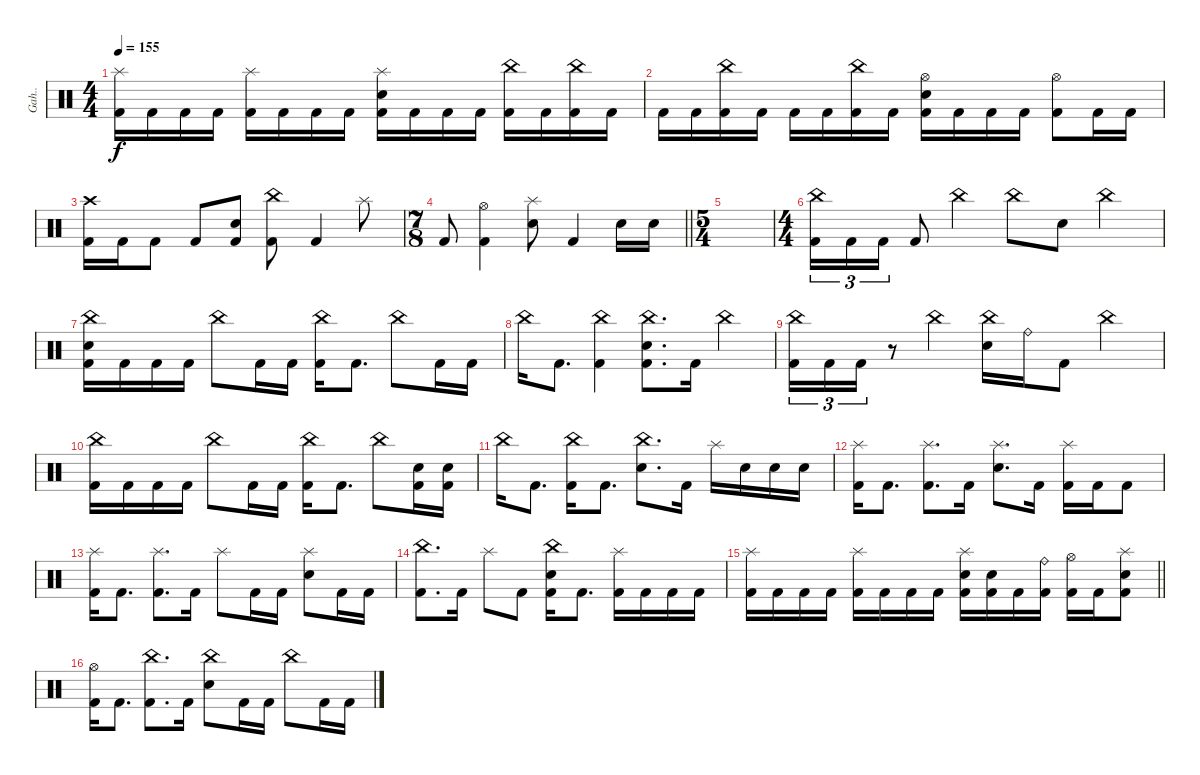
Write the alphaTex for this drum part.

\track ("Gah.." "Gah..") {instrument percussion}
\staff {score}
\articulation defaults
\ts (4 4)
\tempo 155
\clef neutral
\ks c
("Splash (hit)" "Kick (hit) 2").16{dy f} "Kick (hit) 2".16 "Kick (hit) 2".16 "Kick (hit) 2".16 ("Splash (hit)" "Kick (hit) 2").16 "Kick (hit) 2".16 "Kick (hit) 2".16 "Kick (hit) 2".16 ("Splash (hit)" "Electric Snare (hit)" "Kick (hit) 2").16 "Kick (hit) 2".16 "Kick (hit) 2".16 "Kick (hit) 2".16 ("China (hit)" "Kick (hit) 2").16 "Kick (hit) 2".16 ("China (hit)" "Kick (hit) 2").16 "Kick (hit) 2".16 |
"Kick (hit) 2".16 "Kick (hit) 2".16 ("China (hit)" "Kick (hit) 2").16 "Kick (hit) 2".16 "Kick (hit) 2".16 "Kick (hit) 2".16 ("China (hit)" "Kick (hit) 2").16 "Kick (hit) 2".16 ("Hi-Hat (open)" "Electric Snare (hit)" "Kick (hit) 2").16 "Kick (hit) 2".16 "Kick (hit) 2".16 "Kick (hit) 2".16 ("Hi-Hat (open)" "Kick (hit) 2").8 "Kick (hit) 2".16 "Kick (hit) 2".16 |
("Crash high (hit)" "Kick (hit) 2").16 "Kick (hit) 2".16 "Kick (hit) 2".8 "Kick (hit) 2".8 ("Electric Snare (hit)" "Kick (hit) 2").8 ("China (hit)" "Kick (hit) 2").8 "Kick (hit) 2".4 "Splash (hit)".8 |
\ts (7 8)
\barLineRight lightlight "Kick (hit) 2".8
("Hi-Hat (open)" "Kick (hit) 2").4 ("Splash (hit)" "Electric Snare (hit)").8 "Kick (hit) 2".4 "Electric Snare (hit)".16 "Electric Snare (hit)".16 |
\ts (5 4)
\section ("" "")
|
\ts (4 4)
("China (hit)" "Kick (hit) 2").16{tu (3 2)} "Kick (hit) 2".16{tu (3 2)} "Kick (hit) 2".16{tu (3 2)} "Kick (hit) 2".8 "China (hit)".4 "China (hit)".8 "Electric Snare (hit)".8 "China (hit)".4 |
("China (hit)" "Electric Snare (hit)" "Kick (hit) 2").16 "Kick (hit) 2".16 "Kick (hit) 2".16 "Kick (hit) 2".16 "China (hit)".8 "Kick (hit) 2".16 "Kick (hit) 2".16 ("China (hit)" "Kick (hit) 2").16 "Kick (hit) 2".8{d} "China (hit)".8 "Kick (hit) 2".16 "Kick (hit) 2".16 |
"China (hit)".16 "Kick (hit) 2".8{d} ("China (hit)" "Kick (hit) 2").4 ("China (hit)" "Electric Snare (hit)" "Kick (hit) 2").8{d} "Kick (hit) 2".16 "China (hit)".4 |
("China (hit)" "Kick (hit) 2").16{tu (3 2)} "Kick (hit) 2".16{tu (3 2)} "Kick (hit) 2".16{tu (3 2)} r.8 "China (hit)".4 ("China (hit)" "Electric Snare (hit)").16 "Ride (bell)".16 "Kick (hit) 2".8 "China (hit)".4 |
("China (hit)" "Kick (hit) 2").16 "Kick (hit) 2".16 "Kick (hit) 2".16 "Kick (hit) 2".16 "China (hit)".8 "Kick (hit) 2".16 "Kick (hit) 2".16 ("China (hit)" "Kick (hit) 2").16 "Kick (hit) 2".8{d} "China (hit)".8 ("Electric Snare (hit)" "Kick (hit) 2").16 ("Electric Snare (hit)" "Kick (hit) 2").16 |
"China (hit)".16 "Kick (hit) 2".8{d} ("China (hit)" "Kick (hit) 2").16 "Kick (hit) 2".8{d} ("China (hit)" "Electric Snare (hit)").8{d} "Kick (hit) 2".16 "Splash (hit)".16 "Electric Snare (hit)".16 "Electric Snare (hit)".16 "Electric Snare (hit)".16 |
("Splash (hit)" "Kick (hit) 2").16 "Kick (hit) 2".8{d} ("Splash (hit)" "Kick (hit) 2").8{d} "Kick (hit) 2".16 ("Splash (hit)" "Electric Snare (hit)").8{d} "Kick (hit) 2".16 ("Splash (hit)" "Kick (hit) 2").16 "Kick (hit) 2".16 "Kick (hit) 2".8 |
("Splash (hit)" "Kick (hit) 2").16 "Kick (hit) 2".8{d} ("Splash (hit)" "Kick (hit) 2").8{d} "Kick (hit) 2".16 "Splash (hit)".8 "Kick (hit) 2".16 "Kick (hit) 2".16 ("Splash (hit)" "Electric Snare (hit)").8 "Kick (hit) 2".16 "Kick (hit) 2".16 |
("China (hit)" "Kick (hit) 2").8{d} "Kick (hit) 2".16 "Splash (hit)".8 "Kick (hit) 2".8 ("China (hit)" "Electric Snare (hit)" "Kick (hit) 2").16 "Kick (hit) 2".8{d} ("Splash (hit)" "Kick (hit) 2").16 "Kick (hit) 2".16 "Kick (hit) 2".16 "Kick (hit) 2".16 |
\barLineRight lightlight
("Splash (hit)" "Kick (hit) 2").16 "Kick (hit) 2".16 "Kick (hit) 2".16 "Kick (hit) 2".16 ("Splash (hit)" "Kick (hit) 2").16 "Kick (hit) 2".16 "Kick (hit) 2".16 "Kick (hit) 2".16 ("Splash (hit)" "Electric Snare (hit)" "Kick (hit) 2").16 ("Electric Snare (hit)" "Kick (hit) 2").16 "Kick (hit) 2".16 ("Ride (bell)" "Kick (hit) 2").16 ("Hi-Hat (open)" "Kick (hit) 2").16 "Kick (hit) 2".16 ("Splash (hit)" "Electric Snare (hit)" "Kick (hit) 2").8 |
\section ("" "")
("Hi-Hat (open)" "Kick (hit) 2").16 "Kick (hit) 2".8{d} ("China (hit)" "Kick (hit) 2").8{d} "Kick (hit) 2".16 ("China (hit)" "Electric Snare (hit)").8 "Kick (hit) 2".16 "Kick (hit) 2".16 "China (hit)".8 "Kick (hit) 2".16 "Kick (hit) 2".16
